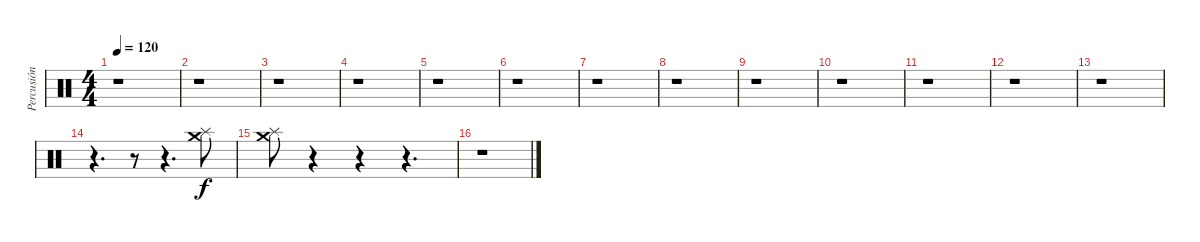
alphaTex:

\track ("Percusión" "Percusión") {instrument percussion}
\staff {score}
\articulation defaults
\ts (4 4)
\tempo 120
\clef neutral
\ks c
r.1{dy f} |
r.1 |
r.1 |
r.1 |
r.1 |
r.1 |
r.1 |
r.1 |
r.1 |
r.1 |
r.1 |
r.1 |
r.1 |
r.4{d} r.8 r.4{d} ("Splash (hit)" "Crash medium (hit)").8 |
("Splash (hit)" "Crash medium (hit)").8 r.4 r.4 r.4{d} |
r.1
